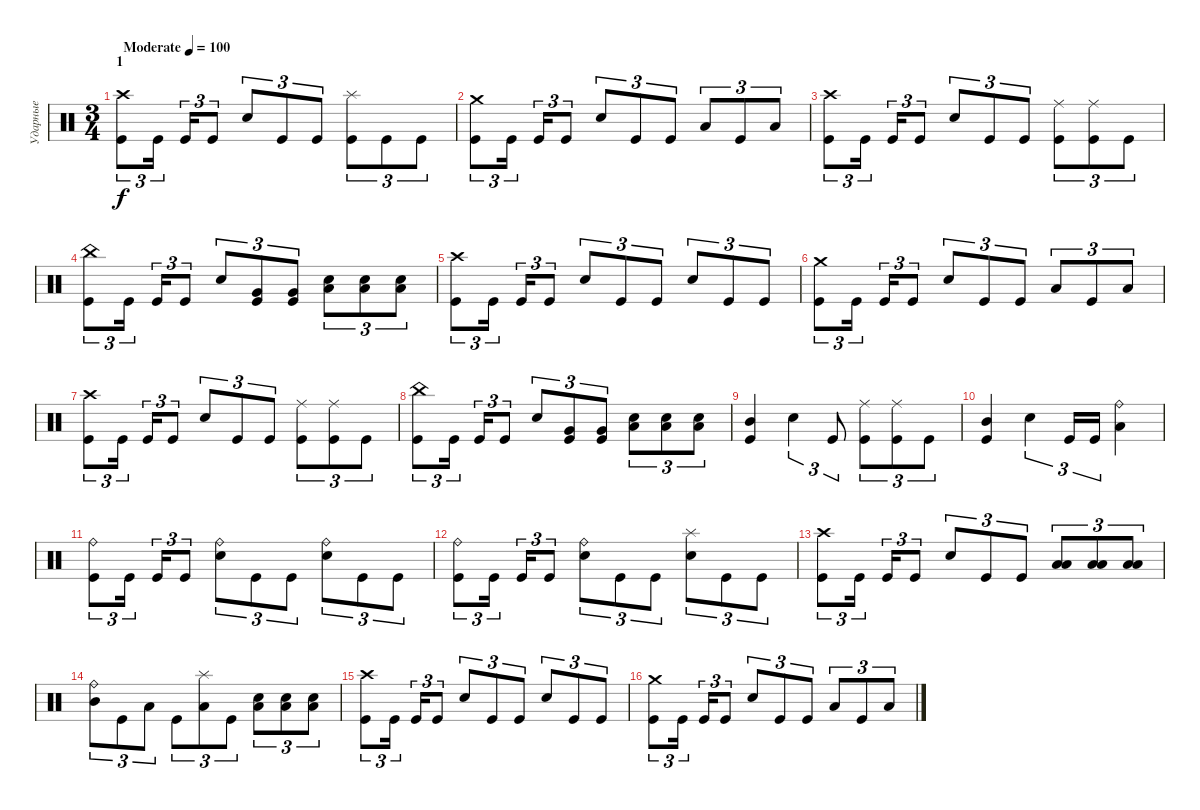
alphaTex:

\track ("Ударные" "Ударные") {instrument percussion}
\staff {score}
\articulation defaults
\ts (3 4)
\section ("" "1")
\tempo (100 "Moderate")
\clef neutral
\ks c
("Crash high (hit)" "Kick (hit)").8{tu (3 2) dy f} "Kick (hit)".16{tu (3 2) beam splitsecondary} "Kick (hit)".16{tu (3 2)} "Kick (hit)".8{tu (3 2)} "Electric Snare (hit)".8{tu (3 2)} "Kick (hit)".8{tu (3 2)} "Kick (hit)".8{tu (3 2)} ("Splash (hit)" "Kick (hit)").8{tu (3 2)} "Kick (hit)".8{tu (3 2)} "Kick (hit)".8{tu (3 2)} |
("Crash medium (hit)" "Kick (hit)").8{tu (3 2)} "Kick (hit)".16{tu (3 2) beam splitsecondary} "Kick (hit)".16{tu (3 2)} "Kick (hit)".8{tu (3 2)} "Electric Snare (hit)".8{tu (3 2)} "Kick (hit)".8{tu (3 2)} "Kick (hit)".8{tu (3 2)} "Low Tom (hit)".8{tu (3 2)} "Kick (hit)".8{tu (3 2)} "Low Tom (hit)".8{tu (3 2)} |
("Crash high (hit)" "Kick (hit)").8{tu (3 2)} "Kick (hit)".16{tu (3 2) beam splitsecondary} "Kick (hit)".16{tu (3 2)} "Kick (hit)".8{tu (3 2)} "Electric Snare (hit)".8{tu (3 2)} "Kick (hit)".8{tu (3 2)} "Kick (hit)".8{tu (3 2)} ("Ride (middle)" "Kick (hit)").8{tu (3 2)} ("Ride (middle)" "Kick (hit)").8{tu (3 2)} "Kick (hit)".8{tu (3 2)} |
("China (hit)" "Kick (hit)").8{tu (3 2)} "Kick (hit)".16{tu (3 2) beam splitsecondary} "Kick (hit)".16{tu (3 2)} "Kick (hit)".8{tu (3 2)} "Electric Snare (hit)".8{tu (3 2)} ("Very Low Tom (hit)" "Kick (hit)").8{tu (3 2)} ("Very Low Tom (hit)" "Kick (hit)").8{tu (3 2)} ("Low Floor Tom (hit)" "Electric Snare (hit)").8{tu (3 2)} ("Low Floor Tom (hit)" "Electric Snare (hit)").8{tu (3 2)} ("Low Floor Tom (hit)" "Electric Snare (hit)").8{tu (3 2)} |
("Crash high (hit)" "Kick (hit)").8{tu (3 2)} "Kick (hit)".16{tu (3 2) beam splitsecondary} "Kick (hit)".16{tu (3 2)} "Kick (hit)".8{tu (3 2)} "Electric Snare (hit)".8{tu (3 2)} "Kick (hit)".8{tu (3 2)} "Kick (hit)".8{tu (3 2)} "Electric Snare (hit)".8{tu (3 2)} "Kick (hit)".8{tu (3 2)} "Kick (hit)".8{tu (3 2)} |
("Crash medium (hit)" "Kick (hit)").8{tu (3 2)} "Kick (hit)".16{tu (3 2) beam splitsecondary} "Kick (hit)".16{tu (3 2)} "Kick (hit)".8{tu (3 2)} "Electric Snare (hit)".8{tu (3 2)} "Kick (hit)".8{tu (3 2)} "Kick (hit)".8{tu (3 2)} "Low Tom (hit)".8{tu (3 2)} "Kick (hit)".8{tu (3 2)} "Low Tom (hit)".8{tu (3 2)} |
("Crash high (hit)" "Kick (hit)").8{tu (3 2)} "Kick (hit)".16{tu (3 2) beam splitsecondary} "Kick (hit)".16{tu (3 2)} "Kick (hit)".8{tu (3 2)} "Electric Snare (hit)".8{tu (3 2)} "Kick (hit)".8{tu (3 2)} "Kick (hit)".8{tu (3 2)} ("Ride (middle)" "Kick (hit)").8{tu (3 2)} ("Ride (middle)" "Kick (hit)").8{tu (3 2)} "Kick (hit)".8{tu (3 2)} |
("China (hit)" "Kick (hit)").8{tu (3 2)} "Kick (hit)".16{tu (3 2) beam splitsecondary} "Kick (hit)".16{tu (3 2)} "Kick (hit)".8{tu (3 2)} "Electric Snare (hit)".8{tu (3 2)} ("Very Low Tom (hit)" "Kick (hit)").8{tu (3 2)} ("Very Low Tom (hit)" "Kick (hit)").8{tu (3 2)} ("Low Floor Tom (hit)" "Electric Snare (hit)").8{tu (3 2)} ("Low Floor Tom (hit)" "Electric Snare (hit)").8{tu (3 2)} ("Low Floor Tom (hit)" "Electric Snare (hit)").8{tu (3 2)} |
("Mid Tom (hit)" "Kick (hit)").4 "Electric Snare (hit)".4{tu (3 2)} "Kick (hit)".8{tu (3 2)} ("Ride (middle)" "Kick (hit)").8{tu (3 2)} ("Ride (middle)" "Kick (hit)").8{tu (3 2)} "Kick (hit)".8{tu (3 2)} |
("Mid Tom (hit)" "Kick (hit)").4 "Electric Snare (hit)".4{tu (3 2)} "Kick (hit)".16{tu (3 2)} "Kick (hit)".16{tu (3 2)} ("Ride (bell)" "Low Floor Tom (hit)").4 |
("Ride (bell)" "Kick (hit)").8{tu (3 2)} "Kick (hit)".16{tu (3 2) beam splitsecondary} "Kick (hit)".16{tu (3 2)} "Kick (hit)".8{tu (3 2)} ("Ride (bell)" "Electric Snare (hit)").8{tu (3 2)} "Kick (hit)".8{tu (3 2)} "Kick (hit)".8{tu (3 2)} ("Ride (bell)" "Electric Snare (hit)").8{tu (3 2)} "Kick (hit)".8{tu (3 2)} "Kick (hit)".8{tu (3 2)} |
("Ride (bell)" "Kick (hit)").8{tu (3 2)} "Kick (hit)".16{tu (3 2) beam splitsecondary} "Kick (hit)".16{tu (3 2)} "Kick (hit)".8{tu (3 2)} ("Ride (bell)" "Electric Snare (hit)").8{tu (3 2)} "Kick (hit)".8{tu (3 2)} "Kick (hit)".8{tu (3 2)} ("Splash (hit)" "Electric Snare (hit)").8{tu (3 2)} "Kick (hit)".8{tu (3 2)} "Kick (hit)".8{tu (3 2)} |
("Crash high (hit)" "Kick (hit)").8{tu (3 2)} "Kick (hit)".16{tu (3 2) beam splitsecondary} "Kick (hit)".16{tu (3 2)} "Kick (hit)".8{tu (3 2)} "Electric Snare (hit)".8{tu (3 2)} "Kick (hit)".8{tu (3 2)} "Kick (hit)".8{tu (3 2)} ("Low Floor Tom (hit)" "Low Tom (hit)").8{tu (3 2)} ("Low Floor Tom (hit)" "Low Tom (hit)").8{tu (3 2)} ("Low Floor Tom (hit)" "Low Tom (hit)").8{tu (3 2)} |
("Ride (bell)" "Mid Tom (hit)").8{tu (3 2)} "Kick (hit)".8{tu (3 2)} "Low Tom (hit)".8{tu (3 2)} "Kick (hit)".8{tu (3 2)} ("Splash (hit)" "Low Floor Tom (hit)").8{tu (3 2)} "Kick (hit)".8{tu (3 2)} ("Low Floor Tom (hit)" "Electric Snare (hit)").8{tu (3 2)} ("Low Floor Tom (hit)" "Electric Snare (hit)").8{tu (3 2)} ("Low Floor Tom (hit)" "Electric Snare (hit)").8{tu (3 2)} |
("Crash high (hit)" "Kick (hit)").8{tu (3 2)} "Kick (hit)".16{tu (3 2) beam splitsecondary} "Kick (hit)".16{tu (3 2)} "Kick (hit)".8{tu (3 2)} "Electric Snare (hit)".8{tu (3 2)} "Kick (hit)".8{tu (3 2)} "Kick (hit)".8{tu (3 2)} "Electric Snare (hit)".8{tu (3 2)} "Kick (hit)".8{tu (3 2)} "Kick (hit)".8{tu (3 2)} |
("Crash medium (hit)" "Kick (hit)").8{tu (3 2)} "Kick (hit)".16{tu (3 2) beam splitsecondary} "Kick (hit)".16{tu (3 2)} "Kick (hit)".8{tu (3 2)} "Electric Snare (hit)".8{tu (3 2)} "Kick (hit)".8{tu (3 2)} "Kick (hit)".8{tu (3 2)} "Low Tom (hit)".8{tu (3 2)} "Kick (hit)".8{tu (3 2)} "Low Tom (hit)".8{tu (3 2)}
